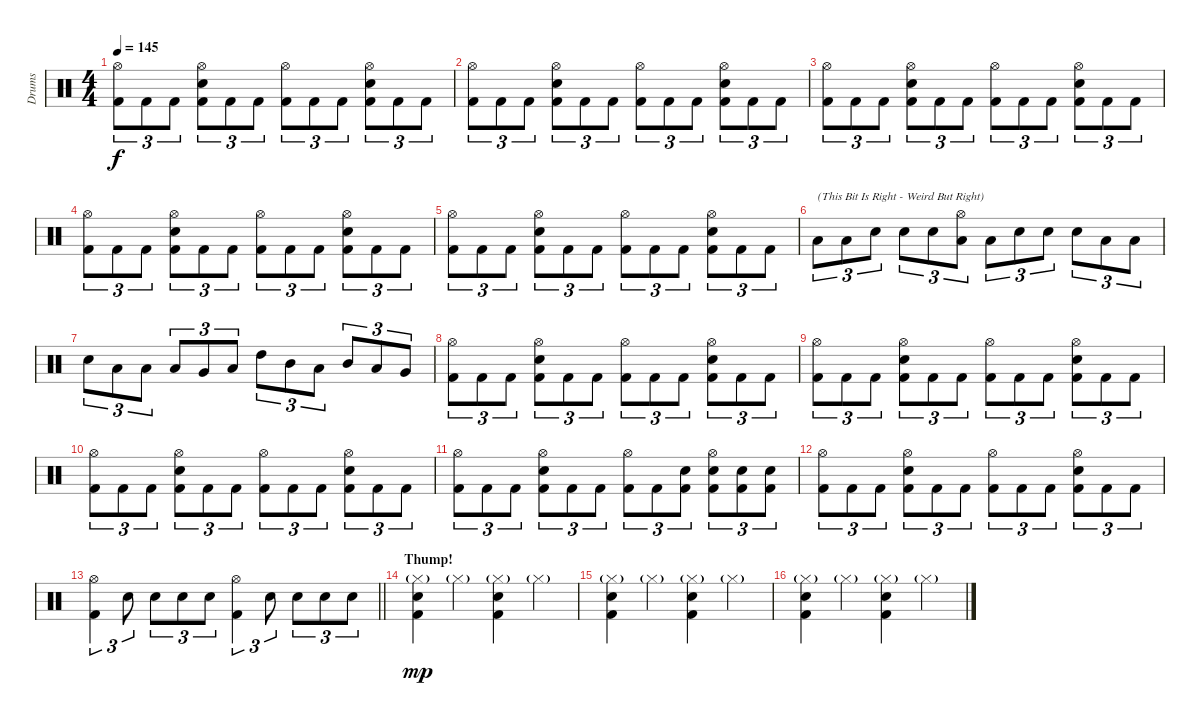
\track ("Drums" "Drums") {instrument percussion}
\staff {score}
\articulation defaults
\ts (4 4)
\tempo 145
\clef neutral
\ks c
("Hi-Hat (open)" "Kick (hit) 2").8{tu (3 2) dy f} "Kick (hit) 2".8{tu (3 2)} "Kick (hit) 2".8{tu (3 2)} ("Hi-Hat (open)" "Electric Snare (hit)" "Kick (hit) 2").8{tu (3 2)} "Kick (hit) 2".8{tu (3 2)} "Kick (hit) 2".8{tu (3 2)} ("Hi-Hat (open)" "Kick (hit) 2").8{tu (3 2)} "Kick (hit) 2".8{tu (3 2)} "Kick (hit) 2".8{tu (3 2)} ("Hi-Hat (open)" "Electric Snare (hit)" "Kick (hit) 2").8{tu (3 2)} "Kick (hit) 2".8{tu (3 2)} "Kick (hit) 2".8{tu (3 2)} |
("Hi-Hat (open)" "Kick (hit) 2").8{tu (3 2)} "Kick (hit) 2".8{tu (3 2)} "Kick (hit) 2".8{tu (3 2)} ("Hi-Hat (open)" "Electric Snare (hit)" "Kick (hit) 2").8{tu (3 2)} "Kick (hit) 2".8{tu (3 2)} "Kick (hit) 2".8{tu (3 2)} ("Hi-Hat (open)" "Kick (hit) 2").8{tu (3 2)} "Kick (hit) 2".8{tu (3 2)} "Kick (hit) 2".8{tu (3 2)} ("Hi-Hat (open)" "Electric Snare (hit)" "Kick (hit) 2").8{tu (3 2)} "Kick (hit) 2".8{tu (3 2)} "Kick (hit) 2".8{tu (3 2)} |
("Hi-Hat (open)" "Kick (hit) 2").8{tu (3 2)} "Kick (hit) 2".8{tu (3 2)} "Kick (hit) 2".8{tu (3 2)} ("Hi-Hat (open)" "Electric Snare (hit)" "Kick (hit) 2").8{tu (3 2)} "Kick (hit) 2".8{tu (3 2)} "Kick (hit) 2".8{tu (3 2)} ("Hi-Hat (open)" "Kick (hit) 2").8{tu (3 2)} "Kick (hit) 2".8{tu (3 2)} "Kick (hit) 2".8{tu (3 2)} ("Hi-Hat (open)" "Electric Snare (hit)" "Kick (hit) 2").8{tu (3 2)} "Kick (hit) 2".8{tu (3 2)} "Kick (hit) 2".8{tu (3 2)} |
("Hi-Hat (open)" "Kick (hit) 2").8{tu (3 2)} "Kick (hit) 2".8{tu (3 2)} "Kick (hit) 2".8{tu (3 2)} ("Hi-Hat (open)" "Electric Snare (hit)" "Kick (hit) 2").8{tu (3 2)} "Kick (hit) 2".8{tu (3 2)} "Kick (hit) 2".8{tu (3 2)} ("Hi-Hat (open)" "Kick (hit) 2").8{tu (3 2)} "Kick (hit) 2".8{tu (3 2)} "Kick (hit) 2".8{tu (3 2)} ("Hi-Hat (open)" "Electric Snare (hit)" "Kick (hit) 2").8{tu (3 2)} "Kick (hit) 2".8{tu (3 2)} "Kick (hit) 2".8{tu (3 2)} |
("Hi-Hat (open)" "Kick (hit) 2").8{tu (3 2)} "Kick (hit) 2".8{tu (3 2)} "Kick (hit) 2".8{tu (3 2)} ("Hi-Hat (open)" "Electric Snare (hit)" "Kick (hit) 2").8{tu (3 2)} "Kick (hit) 2".8{tu (3 2)} "Kick (hit) 2".8{tu (3 2)} ("Hi-Hat (open)" "Kick (hit) 2").8{tu (3 2)} "Kick (hit) 2".8{tu (3 2)} "Kick (hit) 2".8{tu (3 2)} ("Hi-Hat (open)" "Electric Snare (hit)" "Kick (hit) 2").8{tu (3 2)} "Kick (hit) 2".8{tu (3 2)} "Kick (hit) 2".8{tu (3 2)} |
"Low Tom (hit)".8{tu (3 2) txt "(This Bit Is Right - Weird But Right)"} "Low Tom (hit)".8{tu (3 2)} "Electric Snare (hit)".8{tu (3 2)} "Electric Snare (hit)".8{tu (3 2)} "Electric Snare (hit)".8{tu (3 2)} ("Hi-Hat (open)" "Low Tom (hit)").8{tu (3 2)} "Low Tom (hit)".8{tu (3 2)} "Electric Snare (hit)".8{tu (3 2)} "Electric Snare (hit)".8{tu (3 2)} "Electric Snare (hit)".8{tu (3 2)} "Low Tom (hit)".8{tu (3 2)} "Low Tom (hit)".8{tu (3 2)} |
"Electric Snare (hit)".8{tu (3 2)} "Low Tom (hit)".8{tu (3 2)} "Low Tom (hit)".8{tu (3 2)} "Low Tom (hit)".8{tu (3 2)} "Very Low Tom (hit)".8{tu (3 2)} "Low Floor Tom (hit)".8{tu (3 2)} "High Tom (hit)".8{tu (3 2)} "Mid Tom (hit)".8{tu (3 2)} "Low Tom (hit)".8{tu (3 2)} "Mid Tom (hit)".8{tu (3 2)} "Low Tom (hit)".8{tu (3 2)} "Very Low Tom (hit)".8{tu (3 2)} |
("Hi-Hat (open)" "Kick (hit) 2").8{tu (3 2)} "Kick (hit) 2".8{tu (3 2)} "Kick (hit) 2".8{tu (3 2)} ("Hi-Hat (open)" "Electric Snare (hit)" "Kick (hit) 2").8{tu (3 2)} "Kick (hit) 2".8{tu (3 2)} "Kick (hit) 2".8{tu (3 2)} ("Hi-Hat (open)" "Kick (hit) 2").8{tu (3 2)} "Kick (hit) 2".8{tu (3 2)} "Kick (hit) 2".8{tu (3 2)} ("Hi-Hat (open)" "Electric Snare (hit)" "Kick (hit) 2").8{tu (3 2)} "Kick (hit) 2".8{tu (3 2)} "Kick (hit) 2".8{tu (3 2)} |
("Hi-Hat (open)" "Kick (hit) 2").8{tu (3 2)} "Kick (hit) 2".8{tu (3 2)} "Kick (hit) 2".8{tu (3 2)} ("Hi-Hat (open)" "Electric Snare (hit)" "Kick (hit) 2").8{tu (3 2)} "Kick (hit) 2".8{tu (3 2)} "Kick (hit) 2".8{tu (3 2)} ("Hi-Hat (open)" "Kick (hit) 2").8{tu (3 2)} "Kick (hit) 2".8{tu (3 2)} "Kick (hit) 2".8{tu (3 2)} ("Hi-Hat (open)" "Electric Snare (hit)" "Kick (hit) 2").8{tu (3 2)} "Kick (hit) 2".8{tu (3 2)} "Kick (hit) 2".8{tu (3 2)} |
("Hi-Hat (open)" "Kick (hit) 2").8{tu (3 2)} "Kick (hit) 2".8{tu (3 2)} "Kick (hit) 2".8{tu (3 2)} ("Hi-Hat (open)" "Electric Snare (hit)" "Kick (hit) 2").8{tu (3 2)} "Kick (hit) 2".8{tu (3 2)} "Kick (hit) 2".8{tu (3 2)} ("Hi-Hat (open)" "Kick (hit) 2").8{tu (3 2)} "Kick (hit) 2".8{tu (3 2)} "Kick (hit) 2".8{tu (3 2)} ("Hi-Hat (open)" "Electric Snare (hit)" "Kick (hit) 2").8{tu (3 2)} "Kick (hit) 2".8{tu (3 2)} "Kick (hit) 2".8{tu (3 2)} |
("Hi-Hat (open)" "Kick (hit) 2").8{tu (3 2)} "Kick (hit) 2".8{tu (3 2)} "Kick (hit) 2".8{tu (3 2)} ("Hi-Hat (open)" "Electric Snare (hit)" "Kick (hit) 2").8{tu (3 2)} "Kick (hit) 2".8{tu (3 2)} "Kick (hit) 2".8{tu (3 2)} ("Hi-Hat (open)" "Kick (hit) 2").8{tu (3 2)} "Kick (hit) 2".8{tu (3 2)} ("Electric Snare (hit)" "Kick (hit) 2").8{tu (3 2)} ("Hi-Hat (open)" "Electric Snare (hit)" "Kick (hit) 2").8{tu (3 2)} ("Electric Snare (hit)" "Kick (hit) 2").8{tu (3 2)} ("Electric Snare (hit)" "Kick (hit) 2").8{tu (3 2)} |
("Hi-Hat (open)" "Kick (hit) 2").8{tu (3 2)} "Kick (hit) 2".8{tu (3 2)} "Kick (hit) 2".8{tu (3 2)} ("Hi-Hat (open)" "Electric Snare (hit)" "Kick (hit) 2").8{tu (3 2)} "Kick (hit) 2".8{tu (3 2)} "Kick (hit) 2".8{tu (3 2)} ("Hi-Hat (open)" "Kick (hit) 2").8{tu (3 2)} "Kick (hit) 2".8{tu (3 2)} "Kick (hit) 2".8{tu (3 2)} ("Hi-Hat (open)" "Electric Snare (hit)" "Kick (hit) 2").8{tu (3 2)} "Kick (hit) 2".8{tu (3 2)} "Kick (hit) 2".8{tu (3 2)} |
\barLineRight lightlight
("Hi-Hat (open)" "Kick (hit) 2").4{tu (3 2)} "Electric Snare (hit)".8{tu (3 2)} "Electric Snare (hit)".8{tu (3 2)} "Electric Snare (hit)".8{tu (3 2)} "Electric Snare (hit)".8{tu (3 2)} ("Hi-Hat (open)" "Kick (hit) 2").4{tu (3 2)} "Electric Snare (hit)".8{tu (3 2)} "Electric Snare (hit)".8{tu (3 2)} "Electric Snare (hit)".8{tu (3 2)} "Electric Snare (hit)".8{tu (3 2)} |
\section ("" "Thump!")
("Hi-Hat (closed)"{g} "Electric Snare (hit)" "Kick (hit) 2").4{dy mp} "Hi-Hat (closed)"{g}.4 ("Hi-Hat (closed)"{g} "Electric Snare (hit)" "Kick (hit) 2").4 "Hi-Hat (closed)"{g}.4 |
("Hi-Hat (closed)"{g} "Electric Snare (hit)" "Kick (hit) 2").4 "Hi-Hat (closed)"{g}.4 ("Hi-Hat (closed)"{g} "Electric Snare (hit)" "Kick (hit) 2").4 "Hi-Hat (closed)"{g}.4 |
("Hi-Hat (closed)"{g} "Electric Snare (hit)" "Kick (hit) 2").4 "Hi-Hat (closed)"{g}.4 ("Hi-Hat (closed)"{g} "Electric Snare (hit)" "Kick (hit) 2").4 "Hi-Hat (closed)"{g}.4
